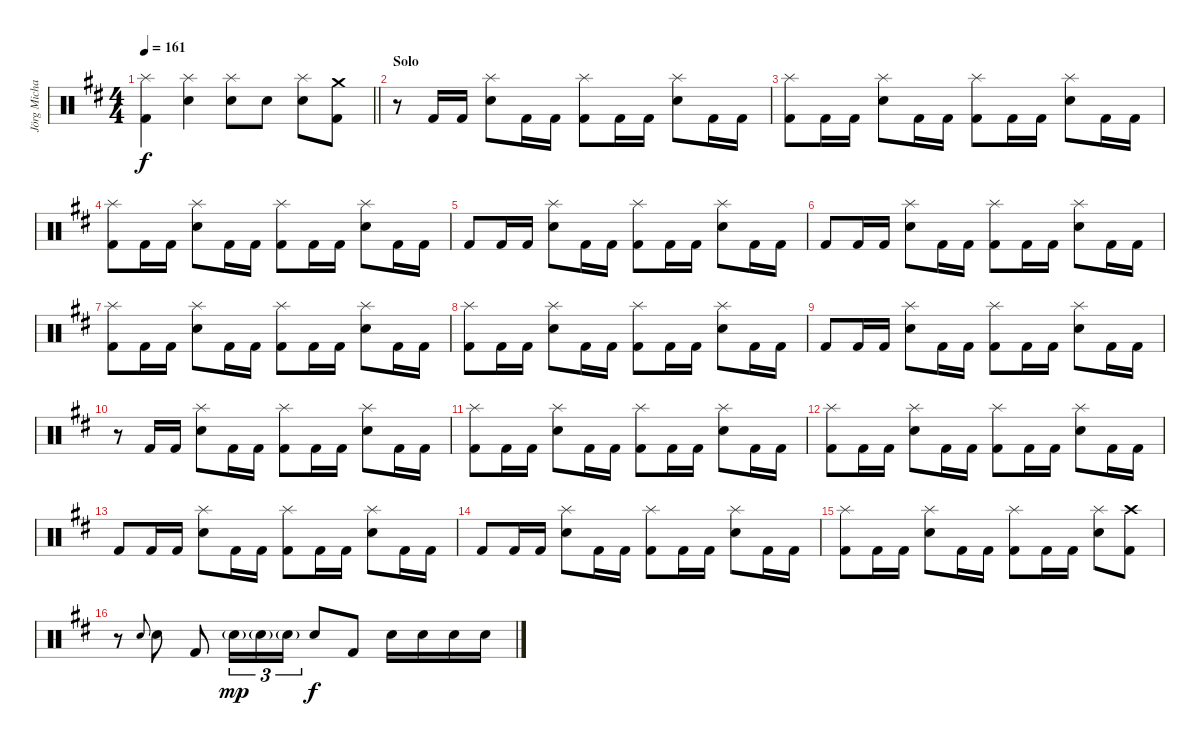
\track ("Jörg Michael" "Jörg Micha") {instrument percussion}
\staff {score}
\articulation defaults
\ts (4 4)
\tempo 161
\clef neutral
\barLineRight lightlight
\ks bminor
("Splash (hit)" "Kick (hit) 2").4{dy f} ("Splash (hit)" "Snare (hit) 2").4 ("Splash (hit)" "Snare (hit) 2").8 "Snare (hit) 2".8 ("Splash (hit)" "Snare (hit) 2").8 ("Crash medium (hit)" "Kick (hit) 2").8 |
\section ("" "Solo")
r.8 "Kick (hit) 2".16 "Kick (hit) 2".16 ("Splash (hit)" "Snare (hit) 2").8 "Kick (hit) 2".16 "Kick (hit) 2".16 ("Splash (hit)" "Kick (hit) 2").8 "Kick (hit) 2".16 "Kick (hit) 2".16 ("Splash (hit)" "Snare (hit) 2").8 "Kick (hit) 2".16 "Kick (hit) 2".16 |
("Splash (hit)" "Kick (hit) 2").8 "Kick (hit) 2".16 "Kick (hit) 2".16 ("Splash (hit)" "Snare (hit) 2").8 "Kick (hit) 2".16 "Kick (hit) 2".16 ("Splash (hit)" "Kick (hit) 2").8 "Kick (hit) 2".16 "Kick (hit) 2".16 ("Splash (hit)" "Snare (hit) 2").8 "Kick (hit) 2".16 "Kick (hit) 2".16 |
("Splash (hit)" "Kick (hit) 2").8 "Kick (hit) 2".16 "Kick (hit) 2".16 ("Splash (hit)" "Snare (hit) 2").8 "Kick (hit) 2".16 "Kick (hit) 2".16 ("Splash (hit)" "Kick (hit) 2").8 "Kick (hit) 2".16 "Kick (hit) 2".16 ("Splash (hit)" "Snare (hit) 2").8 "Kick (hit) 2".16 "Kick (hit) 2".16 |
"Kick (hit) 2".8 "Kick (hit) 2".16 "Kick (hit) 2".16 ("Splash (hit)" "Snare (hit) 2").8 "Kick (hit) 2".16 "Kick (hit) 2".16 ("Splash (hit)" "Kick (hit) 2").8 "Kick (hit) 2".16 "Kick (hit) 2".16 ("Splash (hit)" "Snare (hit) 2").8 "Kick (hit) 2".16 "Kick (hit) 2".16 |
"Kick (hit) 2".8 "Kick (hit) 2".16 "Kick (hit) 2".16 ("Splash (hit)" "Snare (hit) 2").8 "Kick (hit) 2".16 "Kick (hit) 2".16 ("Splash (hit)" "Kick (hit) 2").8 "Kick (hit) 2".16 "Kick (hit) 2".16 ("Splash (hit)" "Snare (hit) 2").8 "Kick (hit) 2".16 "Kick (hit) 2".16 |
("Splash (hit)" "Kick (hit) 2").8 "Kick (hit) 2".16 "Kick (hit) 2".16 ("Splash (hit)" "Snare (hit) 2").8 "Kick (hit) 2".16 "Kick (hit) 2".16 ("Splash (hit)" "Kick (hit) 2").8 "Kick (hit) 2".16 "Kick (hit) 2".16 ("Splash (hit)" "Snare (hit) 2").8 "Kick (hit) 2".16 "Kick (hit) 2".16 |
("Splash (hit)" "Kick (hit) 2").8 "Kick (hit) 2".16 "Kick (hit) 2".16 ("Splash (hit)" "Snare (hit) 2").8 "Kick (hit) 2".16 "Kick (hit) 2".16 ("Splash (hit)" "Kick (hit) 2").8 "Kick (hit) 2".16 "Kick (hit) 2".16 ("Splash (hit)" "Snare (hit) 2").8 "Kick (hit) 2".16 "Kick (hit) 2".16 |
"Kick (hit) 2".8 "Kick (hit) 2".16 "Kick (hit) 2".16 ("Splash (hit)" "Snare (hit) 2").8 "Kick (hit) 2".16 "Kick (hit) 2".16 ("Splash (hit)" "Kick (hit) 2").8 "Kick (hit) 2".16 "Kick (hit) 2".16 ("Splash (hit)" "Snare (hit) 2").8 "Kick (hit) 2".16 "Kick (hit) 2".16 |
r.8 "Kick (hit) 2".16 "Kick (hit) 2".16 ("Splash (hit)" "Snare (hit) 2").8 "Kick (hit) 2".16 "Kick (hit) 2".16 ("Splash (hit)" "Kick (hit) 2").8 "Kick (hit) 2".16 "Kick (hit) 2".16 ("Splash (hit)" "Snare (hit) 2").8 "Kick (hit) 2".16 "Kick (hit) 2".16 |
("Splash (hit)" "Kick (hit) 2").8 "Kick (hit) 2".16 "Kick (hit) 2".16 ("Splash (hit)" "Snare (hit) 2").8 "Kick (hit) 2".16 "Kick (hit) 2".16 ("Splash (hit)" "Kick (hit) 2").8 "Kick (hit) 2".16 "Kick (hit) 2".16 ("Splash (hit)" "Snare (hit) 2").8 "Kick (hit) 2".16 "Kick (hit) 2".16 |
("Splash (hit)" "Kick (hit) 2").8 "Kick (hit) 2".16 "Kick (hit) 2".16 ("Splash (hit)" "Snare (hit) 2").8 "Kick (hit) 2".16 "Kick (hit) 2".16 ("Splash (hit)" "Kick (hit) 2").8 "Kick (hit) 2".16 "Kick (hit) 2".16 ("Splash (hit)" "Snare (hit) 2").8 "Kick (hit) 2".16 "Kick (hit) 2".16 |
"Kick (hit) 2".8 "Kick (hit) 2".16 "Kick (hit) 2".16 ("Splash (hit)" "Snare (hit) 2").8 "Kick (hit) 2".16 "Kick (hit) 2".16 ("Splash (hit)" "Kick (hit) 2").8 "Kick (hit) 2".16 "Kick (hit) 2".16 ("Splash (hit)" "Snare (hit) 2").8 "Kick (hit) 2".16 "Kick (hit) 2".16 |
"Kick (hit) 2".8 "Kick (hit) 2".16 "Kick (hit) 2".16 ("Splash (hit)" "Snare (hit) 2").8 "Kick (hit) 2".16 "Kick (hit) 2".16 ("Splash (hit)" "Kick (hit) 2").8 "Kick (hit) 2".16 "Kick (hit) 2".16 ("Splash (hit)" "Snare (hit) 2").8 "Kick (hit) 2".16 "Kick (hit) 2".16 |
("Splash (hit)" "Kick (hit) 2").8 "Kick (hit) 2".16 "Kick (hit) 2".16 ("Splash (hit)" "Snare (hit) 2").8 "Kick (hit) 2".16 "Kick (hit) 2".16 ("Splash (hit)" "Kick (hit) 2").8 "Kick (hit) 2".16 "Kick (hit) 2".16 ("Splash (hit)" "Snare (hit) 2").8 ("Crash high (hit)" "Kick (hit) 2").8 |
r.8 "Snare (hit) 2".8{gr onbeat} "Snare (hit) 2".8 "Kick (hit) 2".8 "Snare (hit) 2"{g}.16{tu (3 2) dy mp} "Snare (hit) 2"{g}.16{tu (3 2)} "Snare (hit) 2"{g}.16{tu (3 2)} "Snare (hit) 2".8{dy f} "Kick (hit) 2".8 "Snare (hit) 2".16 "Snare (hit) 2".16 "Snare (hit) 2".16 "Snare (hit) 2".16
